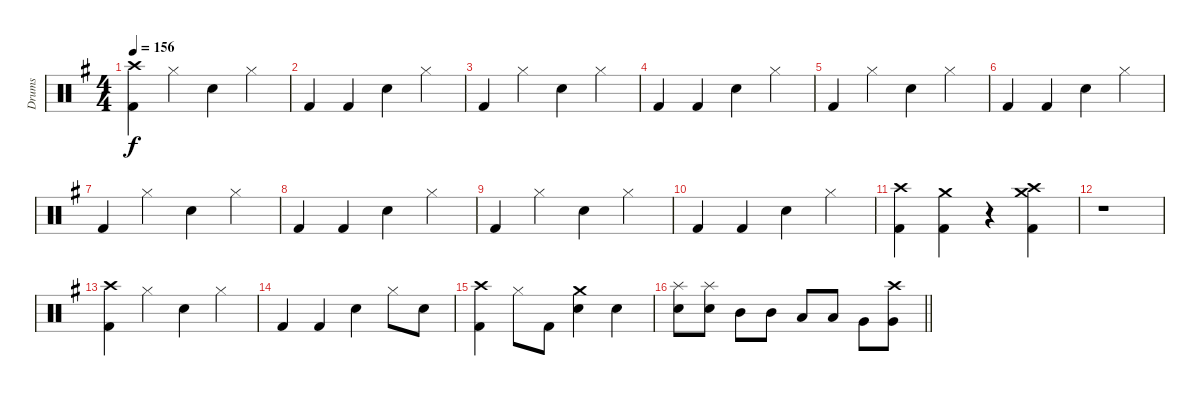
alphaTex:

\track ("Drums" "Drums") {instrument percussion}
\staff {score}
\articulation defaults
\ts (4 4)
\tempo 156
\clef neutral
\ks g
("Crash high (hit)" "Kick (hit) 2").4{dy f} "Hi-Hat (closed)".4 "Snare (hit) 2".4 "Hi-Hat (closed)".4 |
"Kick (hit) 2".4 "Kick (hit) 2".4 "Snare (hit) 2".4 "Hi-Hat (closed)".4 |
"Kick (hit) 2".4 "Hi-Hat (closed)".4 "Snare (hit) 2".4 "Hi-Hat (closed)".4 |
"Kick (hit) 2".4 "Kick (hit) 2".4 "Snare (hit) 2".4 "Hi-Hat (closed)".4 |
"Kick (hit) 2".4 "Hi-Hat (closed)".4 "Snare (hit) 2".4 "Hi-Hat (closed)".4 |
"Kick (hit) 2".4 "Kick (hit) 2".4 "Snare (hit) 2".4 "Hi-Hat (closed)".4 |
"Kick (hit) 2".4 "Hi-Hat (closed)".4 "Snare (hit) 2".4 "Hi-Hat (closed)".4 |
"Kick (hit) 2".4 "Kick (hit) 2".4 "Snare (hit) 2".4 "Hi-Hat (closed)".4 |
"Kick (hit) 2".4 "Hi-Hat (closed)".4 "Snare (hit) 2".4 "Hi-Hat (closed)".4 |
"Kick (hit) 2".4 "Kick (hit) 2".4 "Snare (hit) 2".4 "Hi-Hat (closed)".4 |
("Crash high (hit)" "Kick (hit) 2").4 ("Crash medium (hit)" "Kick (hit) 2").4 r.4 ("Crash high (hit)" "Crash medium (hit)" "Kick (hit) 2").4 |
r.1 |
("Crash high (hit)" "Kick (hit) 2").4 "Hi-Hat (closed)".4 "Snare (hit) 2".4 "Hi-Hat (closed)".4 |
"Kick (hit) 2".4 "Kick (hit) 2".4 "Snare (hit) 2".4 "Hi-Hat (closed)".8 "Snare (hit) 2".8 |
("Crash high (hit)" "Kick (hit) 2").4 "Hi-Hat (closed)".8 "Kick (hit) 2".8 ("Crash medium (hit)" "Snare (hit) 2").4 "Snare (hit) 2".4 |
\barLineRight lightlight
("Splash (hit)" "Snare (hit) 2").8 ("Splash (hit)" "Snare (hit) 2").8 "Mid Tom (hit)".8 "Mid Tom (hit)".8 "Low Tom (hit)".8 "Low Tom (hit)".8 "Very Low Tom (hit)".8 ("Crash high (hit)" "Very Low Tom (hit)").8
